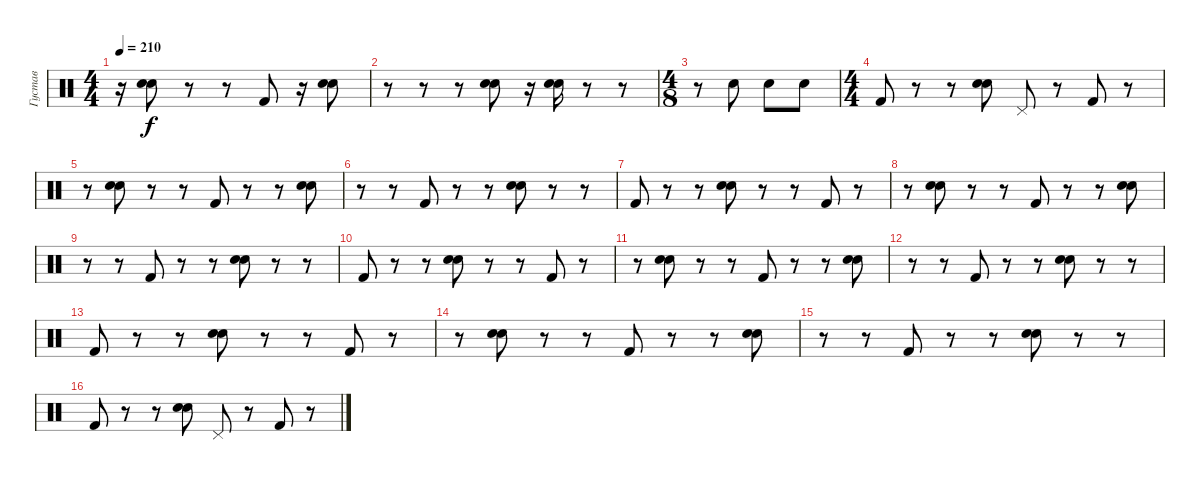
\track ("Густав" "Густав") {instrument percussion}
\staff {score}
\articulation defaults
\ts (4 4)
\tempo 210
\clef neutral
\ks c
r.16{dy f} ("Snare (hit) 2" "Electric Snare (hit)").8 r.8 r.8 "Kick (hit) 2".8 r.16 ("Snare (hit) 2" "Electric Snare (hit)").8 |
r.8 r.8 r.8 ("Snare (hit) 2" "Electric Snare (hit)").8 r.16 ("Snare (hit) 2" "Electric Snare (hit)").16 r.8 r.8 |
\ts (4 8)
r.8 "Snare (hit) 2".8 "Snare (hit) 2".8 "Snare (hit) 2".8 |
\ts (4 4)
"Kick (hit) 2".8 r.8 r.8 ("Electric Snare (hit)" "Snare (hit) 2").8 "Pedal Hi-Hat (hit)".8 r.8 "Kick (hit) 2".8 r.8 |
r.8 ("Electric Snare (hit)" "Snare (hit) 2").8 r.8 r.8 "Kick (hit) 2".8 r.8 r.8 ("Electric Snare (hit)" "Snare (hit) 2").8 |
r.8 r.8 "Kick (hit) 2".8 r.8 r.8 ("Electric Snare (hit)" "Snare (hit) 2").8 r.8 r.8 |
"Kick (hit) 2".8 r.8 r.8 ("Electric Snare (hit)" "Snare (hit) 2").8 r.8 r.8 "Kick (hit) 2".8 r.8 |
r.8 ("Electric Snare (hit)" "Snare (hit) 2").8 r.8 r.8 "Kick (hit) 2".8 r.8 r.8 ("Electric Snare (hit)" "Snare (hit) 2").8 |
r.8 r.8 "Kick (hit) 2".8 r.8 r.8 ("Electric Snare (hit)" "Snare (hit) 2").8 r.8 r.8 |
"Kick (hit) 2".8 r.8 r.8 ("Electric Snare (hit)" "Snare (hit) 2").8 r.8 r.8 "Kick (hit) 2".8 r.8 |
r.8 ("Electric Snare (hit)" "Snare (hit) 2").8 r.8 r.8 "Kick (hit) 2".8 r.8 r.8 ("Electric Snare (hit)" "Snare (hit) 2").8 |
r.8 r.8 "Kick (hit) 2".8 r.8 r.8 ("Electric Snare (hit)" "Snare (hit) 2").8 r.8 r.8 |
"Kick (hit) 2".8 r.8 r.8 ("Electric Snare (hit)" "Snare (hit) 2").8 r.8 r.8 "Kick (hit) 2".8 r.8 |
r.8 ("Electric Snare (hit)" "Snare (hit) 2").8 r.8 r.8 "Kick (hit) 2".8 r.8 r.8 ("Electric Snare (hit)" "Snare (hit) 2").8 |
r.8 r.8 "Kick (hit) 2".8 r.8 r.8 ("Electric Snare (hit)" "Snare (hit) 2").8 r.8 r.8 |
"Kick (hit) 2".8 r.8 r.8 ("Electric Snare (hit)" "Snare (hit) 2").8 "Pedal Hi-Hat (hit)".8 r.8 "Kick (hit) 2".8 r.8
